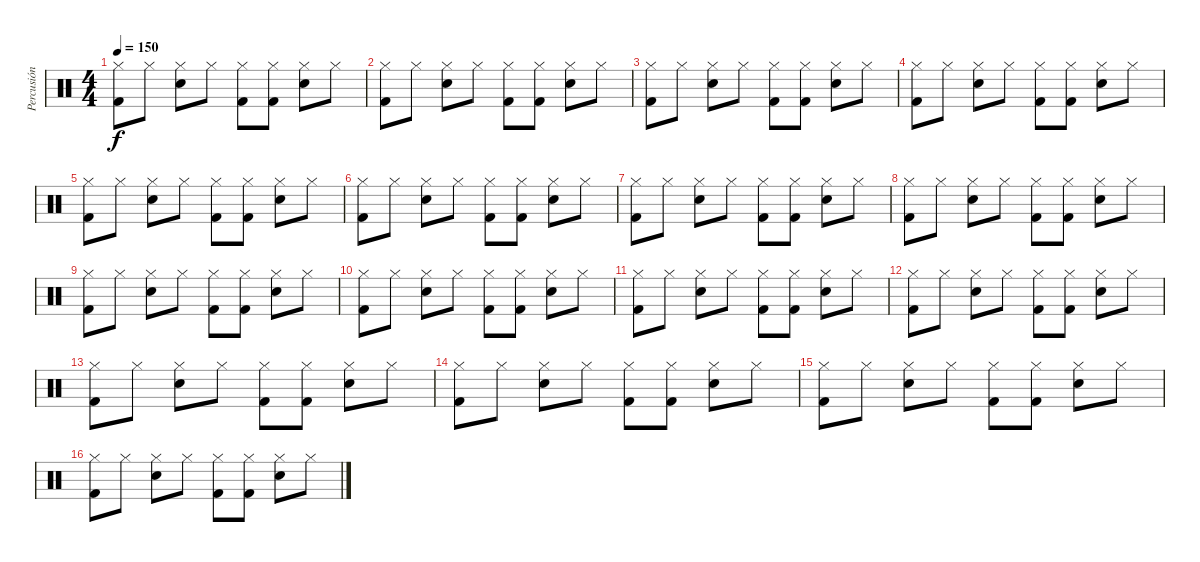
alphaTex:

\track ("Percusión" "Percusión") {instrument percussion}
\staff {score}
\articulation defaults
\ts (4 4)
\tempo 150
\clef neutral
\ks c
("Hi-Hat (closed)" "Kick (hit) 2").8{dy f} "Hi-Hat (closed)".8 ("Hi-Hat (closed)" "Snare (hit) 2").8 "Hi-Hat (closed)".8 ("Hi-Hat (closed)" "Kick (hit) 2").8 ("Hi-Hat (closed)" "Kick (hit) 2").8 ("Hi-Hat (closed)" "Snare (hit) 2").8 "Hi-Hat (closed)".8 |
("Hi-Hat (closed)" "Kick (hit) 2").8 "Hi-Hat (closed)".8 ("Hi-Hat (closed)" "Snare (hit) 2").8 "Hi-Hat (closed)".8 ("Hi-Hat (closed)" "Kick (hit) 2").8 ("Hi-Hat (closed)" "Kick (hit) 2").8 ("Hi-Hat (closed)" "Snare (hit) 2").8 "Hi-Hat (closed)".8 |
("Hi-Hat (closed)" "Kick (hit) 2").8 "Hi-Hat (closed)".8 ("Hi-Hat (closed)" "Snare (hit) 2").8 "Hi-Hat (closed)".8 ("Hi-Hat (closed)" "Kick (hit) 2").8 ("Hi-Hat (closed)" "Kick (hit) 2").8 ("Hi-Hat (closed)" "Snare (hit) 2").8 "Hi-Hat (closed)".8 |
("Hi-Hat (closed)" "Kick (hit) 2").8 "Hi-Hat (closed)".8 ("Hi-Hat (closed)" "Snare (hit) 2").8 "Hi-Hat (closed)".8 ("Hi-Hat (closed)" "Kick (hit) 2").8 ("Hi-Hat (closed)" "Kick (hit) 2").8 ("Hi-Hat (closed)" "Snare (hit) 2").8 "Hi-Hat (closed)".8 |
("Hi-Hat (closed)" "Kick (hit) 2").8 "Hi-Hat (closed)".8 ("Hi-Hat (closed)" "Snare (hit) 2").8 "Hi-Hat (closed)".8 ("Hi-Hat (closed)" "Kick (hit) 2").8 ("Hi-Hat (closed)" "Kick (hit) 2").8 ("Hi-Hat (closed)" "Snare (hit) 2").8 "Hi-Hat (closed)".8 |
("Hi-Hat (closed)" "Kick (hit) 2").8 "Hi-Hat (closed)".8 ("Hi-Hat (closed)" "Snare (hit) 2").8 "Hi-Hat (closed)".8 ("Hi-Hat (closed)" "Kick (hit) 2").8 ("Hi-Hat (closed)" "Kick (hit) 2").8 ("Hi-Hat (closed)" "Snare (hit) 2").8 "Hi-Hat (closed)".8 |
("Hi-Hat (closed)" "Kick (hit) 2").8 "Hi-Hat (closed)".8 ("Hi-Hat (closed)" "Snare (hit) 2").8 "Hi-Hat (closed)".8 ("Hi-Hat (closed)" "Kick (hit) 2").8 ("Hi-Hat (closed)" "Kick (hit) 2").8 ("Hi-Hat (closed)" "Snare (hit) 2").8 "Hi-Hat (closed)".8 |
("Hi-Hat (closed)" "Kick (hit) 2").8 "Hi-Hat (closed)".8 ("Hi-Hat (closed)" "Snare (hit) 2").8 "Hi-Hat (closed)".8 ("Hi-Hat (closed)" "Kick (hit) 2").8 ("Hi-Hat (closed)" "Kick (hit) 2").8 ("Hi-Hat (closed)" "Snare (hit) 2").8 "Hi-Hat (closed)".8 |
("Hi-Hat (closed)" "Kick (hit) 2").8 "Hi-Hat (closed)".8 ("Hi-Hat (closed)" "Snare (hit) 2").8 "Hi-Hat (closed)".8 ("Hi-Hat (closed)" "Kick (hit) 2").8 ("Hi-Hat (closed)" "Kick (hit) 2").8 ("Hi-Hat (closed)" "Snare (hit) 2").8 "Hi-Hat (closed)".8 |
("Hi-Hat (closed)" "Kick (hit) 2").8 "Hi-Hat (closed)".8 ("Hi-Hat (closed)" "Snare (hit) 2").8 "Hi-Hat (closed)".8 ("Hi-Hat (closed)" "Kick (hit) 2").8 ("Hi-Hat (closed)" "Kick (hit) 2").8 ("Hi-Hat (closed)" "Snare (hit) 2").8 "Hi-Hat (closed)".8 |
("Hi-Hat (closed)" "Kick (hit) 2").8 "Hi-Hat (closed)".8 ("Hi-Hat (closed)" "Snare (hit) 2").8 "Hi-Hat (closed)".8 ("Hi-Hat (closed)" "Kick (hit) 2").8 ("Hi-Hat (closed)" "Kick (hit) 2").8 ("Hi-Hat (closed)" "Snare (hit) 2").8 "Hi-Hat (closed)".8 |
("Hi-Hat (closed)" "Kick (hit) 2").8 "Hi-Hat (closed)".8 ("Hi-Hat (closed)" "Snare (hit) 2").8 "Hi-Hat (closed)".8 ("Hi-Hat (closed)" "Kick (hit) 2").8 ("Hi-Hat (closed)" "Kick (hit) 2").8 ("Hi-Hat (closed)" "Snare (hit) 2").8 "Hi-Hat (closed)".8 |
("Hi-Hat (closed)" "Kick (hit) 2").8 "Hi-Hat (closed)".8 ("Hi-Hat (closed)" "Snare (hit) 2").8 "Hi-Hat (closed)".8 ("Hi-Hat (closed)" "Kick (hit) 2").8 ("Hi-Hat (closed)" "Kick (hit) 2").8 ("Hi-Hat (closed)" "Snare (hit) 2").8 "Hi-Hat (closed)".8 |
("Hi-Hat (closed)" "Kick (hit) 2").8 "Hi-Hat (closed)".8 ("Hi-Hat (closed)" "Snare (hit) 2").8 "Hi-Hat (closed)".8 ("Hi-Hat (closed)" "Kick (hit) 2").8 ("Hi-Hat (closed)" "Kick (hit) 2").8 ("Hi-Hat (closed)" "Snare (hit) 2").8 "Hi-Hat (closed)".8 |
("Hi-Hat (closed)" "Kick (hit) 2").8 "Hi-Hat (closed)".8 ("Hi-Hat (closed)" "Snare (hit) 2").8 "Hi-Hat (closed)".8 ("Hi-Hat (closed)" "Kick (hit) 2").8 ("Hi-Hat (closed)" "Kick (hit) 2").8 ("Hi-Hat (closed)" "Snare (hit) 2").8 "Hi-Hat (closed)".8 |
("Hi-Hat (closed)" "Kick (hit) 2").8 "Hi-Hat (closed)".8 ("Hi-Hat (closed)" "Snare (hit) 2").8 "Hi-Hat (closed)".8 ("Hi-Hat (closed)" "Kick (hit) 2").8 ("Hi-Hat (closed)" "Kick (hit) 2").8 ("Hi-Hat (closed)" "Snare (hit) 2").8 "Hi-Hat (closed)".8
